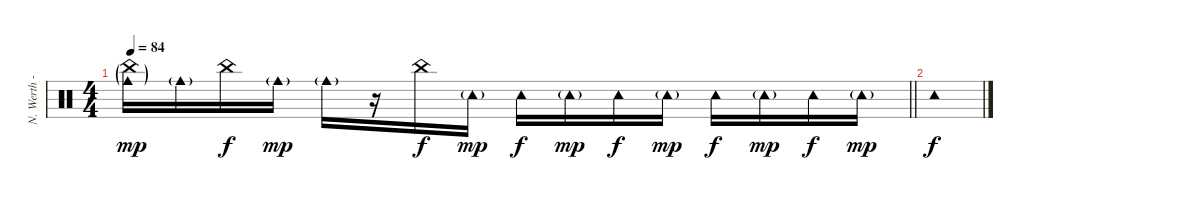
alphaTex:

\track ("N. Werth - Percussion" "N. Werth -") {instrument percussion}
\staff {score}
\articulation defaults
\ts (4 4)
\tempo 84
\clef neutral
\barLineRight lightlight
\ks c
("China (hit)"{g} "Cowbell medium (hit)"{g}).16{dy mp} "Cowbell medium (hit)"{g}.16 "China (hit)".16{dy f} "Cowbell medium (hit)"{g}.16{dy mp} "Cowbell medium (hit)"{g}.16 r.16 "China (hit)".16{dy f} "Tambourine (hit)"{g}.16{dy mp} "Tambourine (hit)".16{dy f} "Tambourine (hit)"{g}.16{dy mp} "Tambourine (hit)".16{dy f} "Tambourine (hit)"{g}.16{dy mp} "Tambourine (hit)".16{dy f} "Tambourine (hit)"{g}.16{dy mp} "Tambourine (hit)".16{dy f} "Tambourine (hit)"{g}.16{dy mp} |
"Tambourine (hit)".1{dy f}
